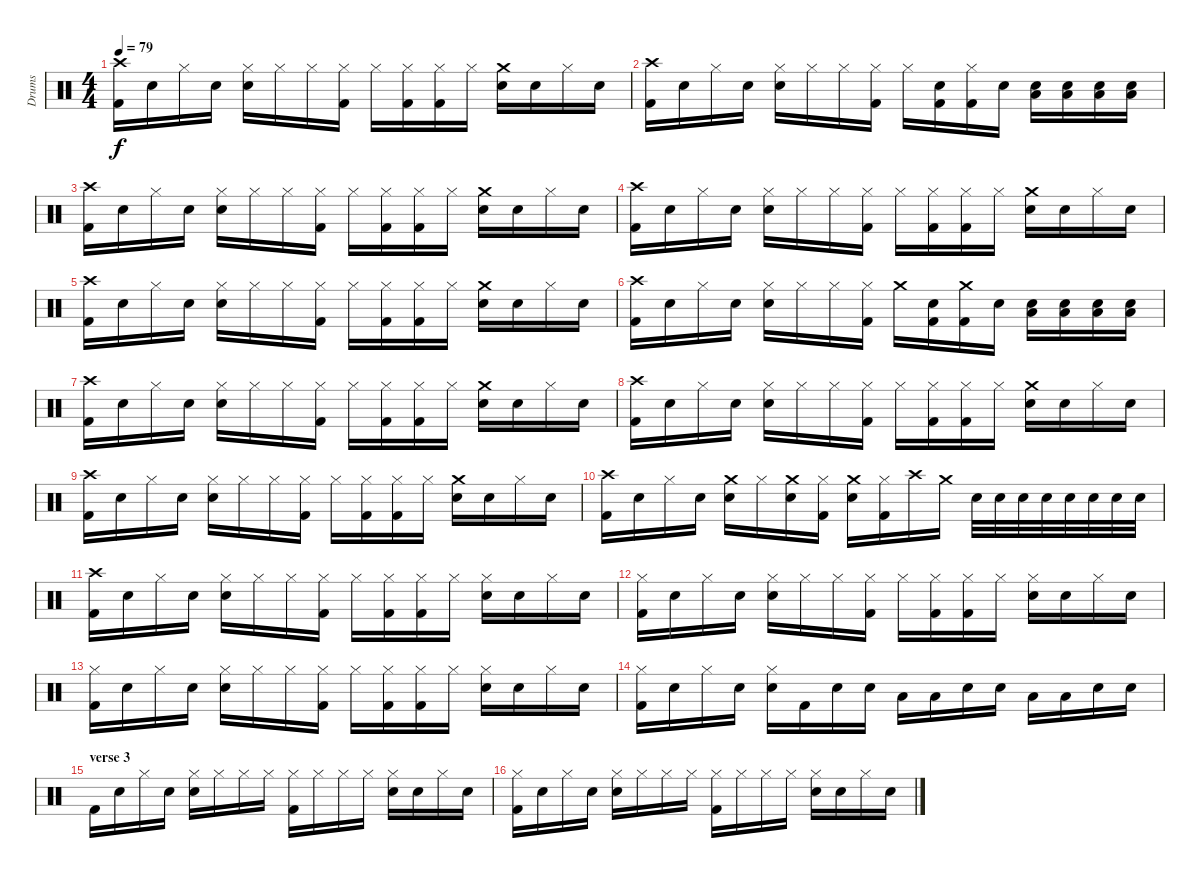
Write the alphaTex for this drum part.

\track ("Drums" "Drums") {instrument percussion}
\staff {score}
\articulation defaults
\ts (4 4)
\tempo 79
\clef neutral
\ks c
("Crash high (hit)" "Kick (hit) 2").16{dy f} "Snare (hit)"{x}.16 "Hi-Hat (closed)".16 "Snare (hit)"{x}.16 ("Hi-Hat (closed)" "Snare (hit) 2").16 "Hi-Hat (closed)"{x}.16 "Hi-Hat (closed)".16 ("Hi-Hat (closed)"{x} "Kick (hit) 2").16 "Hi-Hat (closed)".16 ("Hi-Hat (closed)"{x} "Kick (hit) 2").16 ("Hi-Hat (closed)" "Kick (hit) 2").16 "Hi-Hat (closed)"{x}.16 ("Crash medium (hit)" "Snare (hit) 2").16 "Snare (hit)"{x}.16 "Hi-Hat (closed)".16 "Snare (hit)"{x}.16 |
("Crash high (hit)" "Kick (hit) 2").16 "Snare (hit)"{x}.16 "Hi-Hat (closed)".16 "Snare (hit)"{x}.16 ("Hi-Hat (closed)" "Snare (hit) 2").16 "Hi-Hat (closed)"{x}.16 "Hi-Hat (closed)".16 ("Hi-Hat (closed)"{x} "Kick (hit) 2").16 "Hi-Hat (closed)".16 ("Snare (hit)"{x} "Kick (hit) 2").16 ("Hi-Hat (closed)" "Kick (hit) 2").16 "Snare (hit)"{x}.16 ("Snare (hit) 2" "Low Tom (hit)").16 ("Snare (hit) 2" "Low Tom (hit)").16 ("Snare (hit) 2" "Low Floor Tom (hit)").16 ("Snare (hit) 2" "Low Floor Tom (hit)").16 |
("Crash high (hit)" "Kick (hit) 2").16 "Snare (hit)"{x}.16 "Hi-Hat (closed)".16 "Snare (hit)"{x}.16 ("Hi-Hat (closed)" "Snare (hit) 2").16 "Hi-Hat (closed)"{x}.16 "Hi-Hat (closed)".16 ("Hi-Hat (closed)"{x} "Kick (hit) 2").16 "Hi-Hat (closed)".16 ("Hi-Hat (closed)"{x} "Kick (hit) 2").16 ("Hi-Hat (closed)" "Kick (hit) 2").16 "Hi-Hat (closed)"{x}.16 ("Crash medium (hit)" "Snare (hit) 2").16 "Snare (hit)"{x}.16 "Hi-Hat (closed)".16 "Snare (hit)"{x}.16 |
("Crash high (hit)" "Kick (hit) 2").16 "Snare (hit)"{x}.16 "Hi-Hat (closed)".16 "Snare (hit)"{x}.16 ("Hi-Hat (closed)" "Snare (hit) 2").16 "Hi-Hat (closed)"{x}.16 "Hi-Hat (closed)".16 ("Hi-Hat (closed)"{x} "Kick (hit) 2").16 "Hi-Hat (closed)".16 ("Hi-Hat (closed)"{x} "Kick (hit) 2").16 ("Hi-Hat (closed)" "Kick (hit) 2").16 "Hi-Hat (closed)"{x}.16 ("Crash medium (hit)" "Snare (hit) 2").16 "Snare (hit)"{x}.16 "Hi-Hat (closed)".16 "Snare (hit)"{x}.16 |
("Crash high (hit)" "Kick (hit) 2").16 "Snare (hit)"{x}.16 "Hi-Hat (closed)".16 "Snare (hit)"{x}.16 ("Hi-Hat (closed)" "Snare (hit) 2").16 "Hi-Hat (closed)"{x}.16 "Hi-Hat (closed)".16 ("Hi-Hat (closed)"{x} "Kick (hit) 2").16 "Hi-Hat (closed)".16 ("Hi-Hat (closed)"{x} "Kick (hit) 2").16 ("Hi-Hat (closed)" "Kick (hit) 2").16 "Hi-Hat (closed)"{x}.16 ("Crash medium (hit)" "Snare (hit) 2").16 "Snare (hit)"{x}.16 "Hi-Hat (closed)".16 "Snare (hit)"{x}.16 |
("Crash high (hit)" "Kick (hit) 2").16 "Snare (hit)"{x}.16 "Hi-Hat (closed)".16 "Snare (hit)"{x}.16 ("Hi-Hat (closed)" "Snare (hit) 2").16 "Hi-Hat (closed)"{x}.16 "Hi-Hat (closed)".16 ("Hi-Hat (closed)"{x} "Kick (hit) 2").16 "Crash medium (hit)".16 ("Snare (hit)"{x} "Kick (hit) 2").16 ("Crash medium (hit)" "Kick (hit) 2").16 "Snare (hit)"{x}.16 ("Snare (hit) 2" "Low Tom (hit)").16 ("Snare (hit) 2" "Low Tom (hit)").16 ("Snare (hit) 2" "Low Floor Tom (hit)").16 ("Snare (hit) 2" "Low Floor Tom (hit)").16 |
("Crash high (hit)" "Kick (hit) 2").16 "Snare (hit)"{x}.16 "Hi-Hat (closed)".16 "Snare (hit)"{x}.16 ("Hi-Hat (closed)" "Snare (hit) 2").16 "Hi-Hat (closed)"{x}.16 "Hi-Hat (closed)".16 ("Hi-Hat (closed)"{x} "Kick (hit) 2").16 "Hi-Hat (closed)".16 ("Hi-Hat (closed)"{x} "Kick (hit) 2").16 ("Hi-Hat (closed)" "Kick (hit) 2").16 "Hi-Hat (closed)"{x}.16 ("Crash medium (hit)" "Snare (hit) 2").16 "Snare (hit)"{x}.16 "Hi-Hat (closed)".16 "Snare (hit)"{x}.16 |
("Crash high (hit)" "Kick (hit) 2").16 "Snare (hit)"{x}.16 "Hi-Hat (closed)".16 "Snare (hit)"{x}.16 ("Hi-Hat (closed)" "Snare (hit) 2").16 "Hi-Hat (closed)"{x}.16 "Hi-Hat (closed)".16 ("Hi-Hat (closed)"{x} "Kick (hit) 2").16 "Hi-Hat (closed)".16 ("Hi-Hat (closed)"{x} "Kick (hit) 2").16 ("Hi-Hat (closed)" "Kick (hit) 2").16 "Hi-Hat (closed)"{x}.16 ("Crash medium (hit)" "Snare (hit) 2").16 "Snare (hit)"{x}.16 "Hi-Hat (closed)".16 "Snare (hit)"{x}.16 |
("Crash high (hit)" "Kick (hit) 2").16 "Snare (hit)"{x}.16 "Hi-Hat (closed)".16 "Snare (hit)"{x}.16 ("Hi-Hat (closed)" "Snare (hit) 2").16 "Hi-Hat (closed)"{x}.16 "Hi-Hat (closed)".16 ("Hi-Hat (closed)"{x} "Kick (hit) 2").16 "Hi-Hat (closed)".16 ("Hi-Hat (closed)"{x} "Kick (hit) 2").16 ("Hi-Hat (closed)" "Kick (hit) 2").16 "Hi-Hat (closed)"{x}.16 ("Crash medium (hit)" "Snare (hit) 2").16 "Snare (hit)"{x}.16 "Hi-Hat (closed)".16 "Snare (hit)"{x}.16 |
("Crash high (hit)" "Kick (hit) 2").16 "Snare (hit)"{x}.16 "Hi-Hat (closed)".16 "Snare (hit)"{x}.16 ("Crash medium (hit)" "Snare (hit) 2").16 "Hi-Hat (closed)"{x}.16 ("Crash medium (hit)" "Snare (hit) 2").16 ("Hi-Hat (closed)"{x} "Kick (hit) 2").16 ("Crash medium (hit)" "Snare (hit) 2").16 ("Hi-Hat (closed)"{x} "Kick (hit) 2").16 "Crash high (hit)".16 "Crash medium (hit)"{x}.16 "Snare (hit) 2".32 "Snare (hit) 2".32 "Snare (hit) 2".32 "Snare (hit) 2".32 "Snare (hit) 2".32 "Snare (hit) 2".32 "Snare (hit) 2".32 "Snare (hit) 2".32 |
("Crash high (hit)" "Kick (hit) 2").16 "Snare (hit)"{x}.16 "Hi-Hat (closed)".16 "Snare (hit)"{x}.16 ("Hi-Hat (closed)" "Snare (hit) 2").16 "Hi-Hat (closed)"{x}.16 "Hi-Hat (closed)".16 ("Hi-Hat (closed)"{x} "Kick (hit) 2").16 "Hi-Hat (closed)".16 ("Hi-Hat (closed)"{x} "Kick (hit) 2").16 ("Hi-Hat (closed)" "Kick (hit) 2").16 "Hi-Hat (closed)"{x}.16 ("Hi-Hat (closed)" "Snare (hit) 2").16 "Snare (hit)"{x}.16 "Hi-Hat (closed)".16 "Snare (hit)"{x}.16 |
("Hi-Hat (closed)" "Kick (hit) 2").16 "Snare (hit)"{x}.16 "Hi-Hat (closed)".16 "Snare (hit)"{x}.16 ("Hi-Hat (closed)" "Snare (hit) 2").16 "Hi-Hat (closed)"{x}.16 "Hi-Hat (closed)".16 ("Hi-Hat (closed)"{x} "Kick (hit) 2").16 "Hi-Hat (closed)".16 ("Hi-Hat (closed)"{x} "Kick (hit) 2").16 ("Hi-Hat (closed)" "Kick (hit) 2").16 "Hi-Hat (closed)"{x}.16 ("Hi-Hat (closed)" "Snare (hit) 2").16 "Snare (hit)"{x}.16 "Hi-Hat (closed)".16 "Snare (hit)"{x}.16 |
("Hi-Hat (closed)" "Kick (hit) 2").16 "Snare (hit)"{x}.16 "Hi-Hat (closed)".16 "Snare (hit)"{x}.16 ("Hi-Hat (closed)" "Snare (hit) 2").16 "Hi-Hat (closed)"{x}.16 "Hi-Hat (closed)".16 ("Hi-Hat (closed)"{x} "Kick (hit) 2").16 "Hi-Hat (closed)".16 ("Hi-Hat (closed)"{x} "Kick (hit) 2").16 ("Hi-Hat (closed)" "Kick (hit) 2").16 "Hi-Hat (closed)"{x}.16 ("Hi-Hat (closed)" "Snare (hit) 2").16 "Snare (hit)"{x}.16 "Hi-Hat (closed)".16 "Snare (hit)"{x}.16 |
("Hi-Hat (closed)" "Kick (hit) 2").16 "Snare (hit)"{x}.16 "Hi-Hat (closed)".16 "Snare (hit)"{x}.16 ("Hi-Hat (closed)" "Snare (hit) 2").16 "Kick (hit) 2".16 "Snare (hit) 2".16 "Snare (hit) 2".16 "Low Tom (hit)".16 "Low Tom (hit)".16 "Snare (hit) 2".16 "Snare (hit) 2".16 "Low Tom (hit)".16 "Low Tom (hit)".16 "Snare (hit) 2".16 "Snare (hit)"{x}.16 |
\section ("" "verse 3")
"Kick (hit) 2".16 "Snare (hit)"{x}.16 "Hi-Hat (closed)".16 "Snare (hit)"{x}.16 ("Hi-Hat (closed)" "Snare (hit) 2").16 "Hi-Hat (closed)"{x}.16 "Hi-Hat (closed)".16 "Hi-Hat (closed)"{x}.16 ("Hi-Hat (closed)" "Kick (hit) 2").16 "Hi-Hat (closed)"{x}.16 "Hi-Hat (closed)".16 "Hi-Hat (closed)"{x}.16 ("Hi-Hat (closed)" "Snare (hit) 2").16 "Snare (hit)"{x}.16 "Hi-Hat (closed)".16 "Snare (hit)"{x}.16 |
("Hi-Hat (closed)" "Kick (hit) 2").16 "Snare (hit)"{x}.16 "Hi-Hat (closed)".16 "Snare (hit)"{x}.16 ("Hi-Hat (closed)" "Snare (hit) 2").16 "Hi-Hat (closed)"{x}.16 "Hi-Hat (closed)".16 "Hi-Hat (closed)"{x}.16 ("Hi-Hat (closed)" "Kick (hit) 2").16 "Hi-Hat (closed)"{x}.16 "Hi-Hat (closed)".16 "Hi-Hat (closed)"{x}.16 ("Hi-Hat (closed)" "Snare (hit) 2").16 "Snare (hit)"{x}.16 "Hi-Hat (closed)".16 "Snare (hit)"{x}.16
